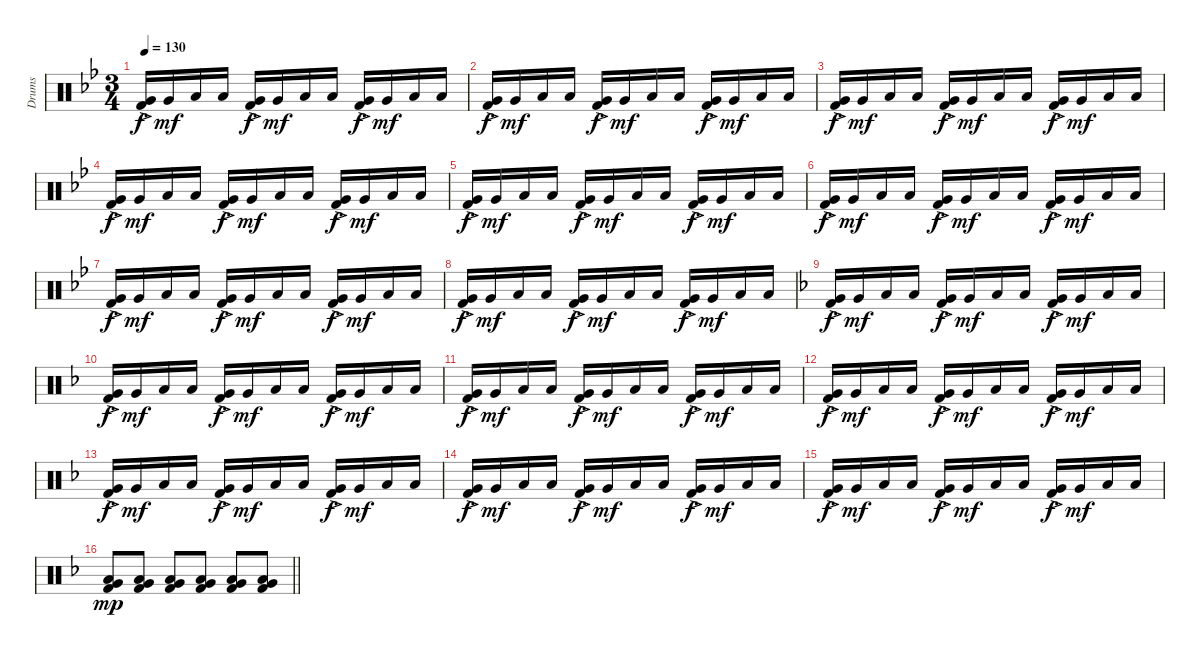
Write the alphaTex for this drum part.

\track ("Drums" "Drums") {instrument percussion}
\staff {score}
\articulation defaults
\ts (3 4)
\tempo 130
\clef neutral
\ks bb
("Very Low Tom (hit)"{ac} "Kick (hit) 2"{ac}).16{dy f} "Very Low Tom (hit)".16{dy mf} "Low Floor Tom (hit)".16 "Low Floor Tom (hit)".16 ("Very Low Tom (hit)"{ac} "Kick (hit) 2"{ac}).16{dy f} "Very Low Tom (hit)".16{dy mf} "Low Floor Tom (hit)".16 "Low Floor Tom (hit)".16 ("Very Low Tom (hit)"{ac} "Kick (hit) 2"{ac}).16{dy f} "Very Low Tom (hit)".16{dy mf} "Low Floor Tom (hit)".16 "Low Floor Tom (hit)".16 |
("Very Low Tom (hit)"{ac} "Kick (hit) 2"{ac}).16{dy f} "Very Low Tom (hit)".16{dy mf} "Low Floor Tom (hit)".16 "Low Floor Tom (hit)".16 ("Very Low Tom (hit)"{ac} "Kick (hit) 2"{ac}).16{dy f} "Very Low Tom (hit)".16{dy mf} "Low Floor Tom (hit)".16 "Low Floor Tom (hit)".16 ("Very Low Tom (hit)"{ac} "Kick (hit) 2"{ac}).16{dy f} "Very Low Tom (hit)".16{dy mf} "Low Floor Tom (hit)".16 "Low Floor Tom (hit)".16 |
("Very Low Tom (hit)"{ac} "Kick (hit) 2"{ac}).16{dy f} "Very Low Tom (hit)".16{dy mf} "Low Floor Tom (hit)".16 "Low Floor Tom (hit)".16 ("Very Low Tom (hit)"{ac} "Kick (hit) 2"{ac}).16{dy f} "Very Low Tom (hit)".16{dy mf} "Low Floor Tom (hit)".16 "Low Floor Tom (hit)".16 ("Very Low Tom (hit)"{ac} "Kick (hit) 2"{ac}).16{dy f} "Very Low Tom (hit)".16{dy mf} "Low Floor Tom (hit)".16 "Low Floor Tom (hit)".16 |
("Very Low Tom (hit)"{ac} "Kick (hit) 2"{ac}).16{dy f} "Very Low Tom (hit)".16{dy mf} "Low Floor Tom (hit)".16 "Low Floor Tom (hit)".16 ("Very Low Tom (hit)"{ac} "Kick (hit) 2"{ac}).16{dy f} "Very Low Tom (hit)".16{dy mf} "Low Floor Tom (hit)".16 "Low Floor Tom (hit)".16 ("Very Low Tom (hit)"{ac} "Kick (hit) 2"{ac}).16{dy f} "Very Low Tom (hit)".16{dy mf} "Low Floor Tom (hit)".16 "Low Floor Tom (hit)".16 |
("Very Low Tom (hit)"{ac} "Kick (hit) 2"{ac}).16{dy f} "Very Low Tom (hit)".16{dy mf} "Low Floor Tom (hit)".16 "Low Floor Tom (hit)".16 ("Very Low Tom (hit)"{ac} "Kick (hit) 2"{ac}).16{dy f} "Very Low Tom (hit)".16{dy mf} "Low Floor Tom (hit)".16 "Low Floor Tom (hit)".16 ("Very Low Tom (hit)"{ac} "Kick (hit) 2"{ac}).16{dy f} "Very Low Tom (hit)".16{dy mf} "Low Floor Tom (hit)".16 "Low Floor Tom (hit)".16 |
("Very Low Tom (hit)"{ac} "Kick (hit) 2"{ac}).16{dy f} "Very Low Tom (hit)".16{dy mf} "Low Floor Tom (hit)".16 "Low Floor Tom (hit)".16 ("Very Low Tom (hit)"{ac} "Kick (hit) 2"{ac}).16{dy f} "Very Low Tom (hit)".16{dy mf} "Low Floor Tom (hit)".16 "Low Floor Tom (hit)".16 ("Very Low Tom (hit)"{ac} "Kick (hit) 2"{ac}).16{dy f} "Very Low Tom (hit)".16{dy mf} "Low Floor Tom (hit)".16 "Low Floor Tom (hit)".16 |
("Very Low Tom (hit)"{ac} "Kick (hit) 2"{ac}).16{dy f} "Very Low Tom (hit)".16{dy mf} "Low Floor Tom (hit)".16 "Low Floor Tom (hit)".16 ("Very Low Tom (hit)"{ac} "Kick (hit) 2"{ac}).16{dy f} "Very Low Tom (hit)".16{dy mf} "Low Floor Tom (hit)".16 "Low Floor Tom (hit)".16 ("Very Low Tom (hit)"{ac} "Kick (hit) 2"{ac}).16{dy f} "Very Low Tom (hit)".16{dy mf} "Low Floor Tom (hit)".16 "Low Floor Tom (hit)".16 |
("Very Low Tom (hit)"{ac} "Kick (hit) 2"{ac}).16{dy f} "Very Low Tom (hit)".16{dy mf} "Low Floor Tom (hit)".16 "Low Floor Tom (hit)".16 ("Very Low Tom (hit)"{ac} "Kick (hit) 2"{ac}).16{dy f} "Very Low Tom (hit)".16{dy mf} "Low Floor Tom (hit)".16 "Low Floor Tom (hit)".16 ("Very Low Tom (hit)"{ac} "Kick (hit) 2"{ac}).16{dy f} "Very Low Tom (hit)".16{dy mf} "Low Floor Tom (hit)".16 "Low Floor Tom (hit)".16 |
\ks f
("Very Low Tom (hit)"{ac} "Kick (hit) 2"{ac}).16{dy f} "Very Low Tom (hit)".16{dy mf} "Low Floor Tom (hit)".16 "Low Floor Tom (hit)".16 ("Very Low Tom (hit)"{ac} "Kick (hit) 2"{ac}).16{dy f} "Very Low Tom (hit)".16{dy mf} "Low Floor Tom (hit)".16 "Low Floor Tom (hit)".16 ("Very Low Tom (hit)"{ac} "Kick (hit) 2"{ac}).16{dy f} "Very Low Tom (hit)".16{dy mf} "Low Floor Tom (hit)".16 "Low Floor Tom (hit)".16 |
("Very Low Tom (hit)"{ac} "Kick (hit) 2"{ac}).16{dy f} "Very Low Tom (hit)".16{dy mf} "Low Floor Tom (hit)".16 "Low Floor Tom (hit)".16 ("Very Low Tom (hit)"{ac} "Kick (hit) 2"{ac}).16{dy f} "Very Low Tom (hit)".16{dy mf} "Low Floor Tom (hit)".16 "Low Floor Tom (hit)".16 ("Very Low Tom (hit)"{ac} "Kick (hit) 2"{ac}).16{dy f} "Very Low Tom (hit)".16{dy mf} "Low Floor Tom (hit)".16 "Low Floor Tom (hit)".16 |
("Very Low Tom (hit)"{ac} "Kick (hit) 2"{ac}).16{dy f} "Very Low Tom (hit)".16{dy mf} "Low Floor Tom (hit)".16 "Low Floor Tom (hit)".16 ("Very Low Tom (hit)"{ac} "Kick (hit) 2"{ac}).16{dy f} "Very Low Tom (hit)".16{dy mf} "Low Floor Tom (hit)".16 "Low Floor Tom (hit)".16 ("Very Low Tom (hit)"{ac} "Kick (hit) 2"{ac}).16{dy f} "Very Low Tom (hit)".16{dy mf} "Low Floor Tom (hit)".16 "Low Floor Tom (hit)".16 |
("Very Low Tom (hit)"{ac} "Kick (hit) 2"{ac}).16{dy f} "Very Low Tom (hit)".16{dy mf} "Low Floor Tom (hit)".16 "Low Floor Tom (hit)".16 ("Very Low Tom (hit)"{ac} "Kick (hit) 2"{ac}).16{dy f} "Very Low Tom (hit)".16{dy mf} "Low Floor Tom (hit)".16 "Low Floor Tom (hit)".16 ("Very Low Tom (hit)"{ac} "Kick (hit) 2"{ac}).16{dy f} "Very Low Tom (hit)".16{dy mf} "Low Floor Tom (hit)".16 "Low Floor Tom (hit)".16 |
("Very Low Tom (hit)"{ac} "Kick (hit) 2"{ac}).16{dy f} "Very Low Tom (hit)".16{dy mf} "Low Floor Tom (hit)".16 "Low Floor Tom (hit)".16 ("Very Low Tom (hit)"{ac} "Kick (hit) 2"{ac}).16{dy f} "Very Low Tom (hit)".16{dy mf} "Low Floor Tom (hit)".16 "Low Floor Tom (hit)".16 ("Very Low Tom (hit)"{ac} "Kick (hit) 2"{ac}).16{dy f} "Very Low Tom (hit)".16{dy mf} "Low Floor Tom (hit)".16 "Low Floor Tom (hit)".16 |
("Very Low Tom (hit)"{ac} "Kick (hit) 2"{ac}).16{dy f} "Very Low Tom (hit)".16{dy mf} "Low Floor Tom (hit)".16 "Low Floor Tom (hit)".16 ("Very Low Tom (hit)"{ac} "Kick (hit) 2"{ac}).16{dy f} "Very Low Tom (hit)".16{dy mf} "Low Floor Tom (hit)".16 "Low Floor Tom (hit)".16 ("Very Low Tom (hit)"{ac} "Kick (hit) 2"{ac}).16{dy f} "Very Low Tom (hit)".16{dy mf} "Low Floor Tom (hit)".16 "Low Floor Tom (hit)".16 |
("Very Low Tom (hit)"{ac} "Kick (hit) 2"{ac}).16{dy f} "Very Low Tom (hit)".16{dy mf} "Low Floor Tom (hit)".16 "Low Floor Tom (hit)".16 ("Very Low Tom (hit)"{ac} "Kick (hit) 2"{ac}).16{dy f} "Very Low Tom (hit)".16{dy mf} "Low Floor Tom (hit)".16 "Low Floor Tom (hit)".16 ("Very Low Tom (hit)"{ac} "Kick (hit) 2"{ac}).16{dy f} "Very Low Tom (hit)".16{dy mf} "Low Floor Tom (hit)".16 "Low Floor Tom (hit)".16 |
\barLineRight lightlight
("Low Tom (hit)" "Very Low Tom (hit)" "Kick (hit) 2").8{dy mp} ("Low Tom (hit)" "Very Low Tom (hit)" "Kick (hit) 2").8 ("Low Tom (hit)" "Very Low Tom (hit)" "Kick (hit) 2").8 ("Low Tom (hit)" "Very Low Tom (hit)" "Kick (hit) 2").8 ("Low Tom (hit)" "Very Low Tom (hit)" "Kick (hit) 2").8 ("Low Tom (hit)" "Very Low Tom (hit)" "Kick (hit) 2").8
